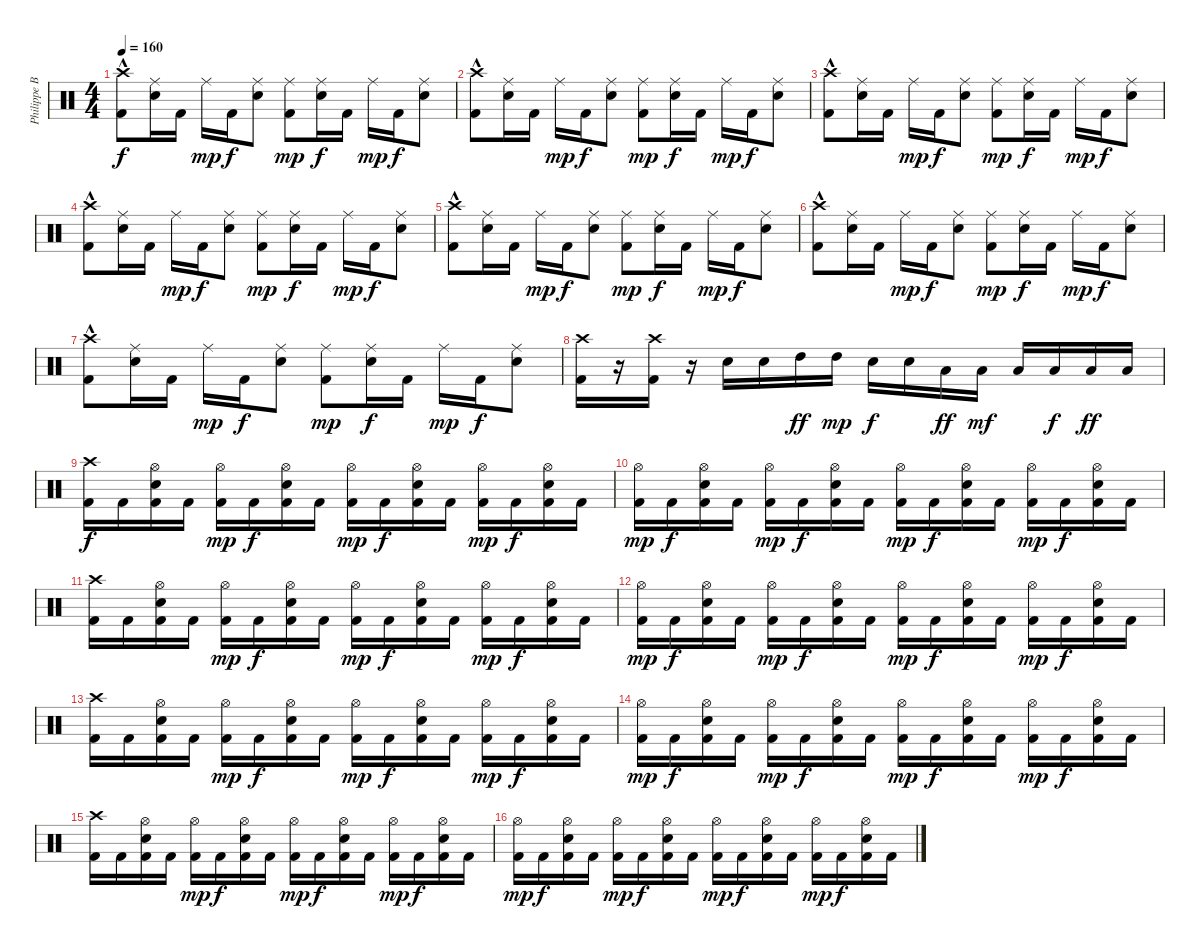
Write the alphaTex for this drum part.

\track ("Philippe Borda" "Philippe B") {instrument percussion}
\staff {score}
\articulation defaults
\ts (4 4)
\tempo 160
\clef neutral
\ks c
("Kick (hit) 2"{hac} "Crash high (hit)").8{dy f} ("Snare (hit) 2" "Ride (middle)").16 "Kick (hit) 2".16 "Ride (middle)".16{dy mp} "Kick (hit) 2".16{dy f} ("Snare (hit) 2" "Ride (middle)").8 ("Kick (hit) 2" "Ride (middle)").8{dy mp} ("Snare (hit) 2" "Ride (middle)").16{dy f} "Kick (hit) 2".16 "Ride (middle)".16{dy mp} "Kick (hit) 2".16{dy f} ("Snare (hit) 2" "Ride (middle)").8 |
("Kick (hit) 2"{hac} "Crash high (hit)").8 ("Snare (hit) 2" "Ride (middle)").16 "Kick (hit) 2".16 "Ride (middle)".16{dy mp} "Kick (hit) 2".16{dy f} ("Snare (hit) 2" "Ride (middle)").8 ("Kick (hit) 2" "Ride (middle)").8{dy mp} ("Snare (hit) 2" "Ride (middle)").16{dy f} "Kick (hit) 2".16 "Ride (middle)".16{dy mp} "Kick (hit) 2".16{dy f} ("Snare (hit) 2" "Ride (middle)").8 |
("Kick (hit) 2"{hac} "Crash high (hit)").8 ("Snare (hit) 2" "Ride (middle)").16 "Kick (hit) 2".16 "Ride (middle)".16{dy mp} "Kick (hit) 2".16{dy f} ("Snare (hit) 2" "Ride (middle)").8 ("Kick (hit) 2" "Ride (middle)").8{dy mp} ("Snare (hit) 2" "Ride (middle)").16{dy f} "Kick (hit) 2".16 "Ride (middle)".16{dy mp} "Kick (hit) 2".16{dy f} ("Snare (hit) 2" "Ride (middle)").8 |
("Kick (hit) 2"{hac} "Crash high (hit)").8 ("Snare (hit) 2" "Ride (middle)").16 "Kick (hit) 2".16 "Ride (middle)".16{dy mp} "Kick (hit) 2".16{dy f} ("Snare (hit) 2" "Ride (middle)").8 ("Kick (hit) 2" "Ride (middle)").8{dy mp} ("Snare (hit) 2" "Ride (middle)").16{dy f} "Kick (hit) 2".16 "Ride (middle)".16{dy mp} "Kick (hit) 2".16{dy f} ("Snare (hit) 2" "Ride (middle)").8 |
("Kick (hit) 2"{hac} "Crash high (hit)").8 ("Snare (hit) 2" "Ride (middle)").16 "Kick (hit) 2".16 "Ride (middle)".16{dy mp} "Kick (hit) 2".16{dy f} ("Snare (hit) 2" "Ride (middle)").8 ("Kick (hit) 2" "Ride (middle)").8{dy mp} ("Snare (hit) 2" "Ride (middle)").16{dy f} "Kick (hit) 2".16 "Ride (middle)".16{dy mp} "Kick (hit) 2".16{dy f} ("Snare (hit) 2" "Ride (middle)").8 |
("Kick (hit) 2"{hac} "Crash high (hit)").8 ("Snare (hit) 2" "Ride (middle)").16 "Kick (hit) 2".16 "Ride (middle)".16{dy mp} "Kick (hit) 2".16{dy f} ("Snare (hit) 2" "Ride (middle)").8 ("Kick (hit) 2" "Ride (middle)").8{dy mp} ("Snare (hit) 2" "Ride (middle)").16{dy f} "Kick (hit) 2".16 "Ride (middle)".16{dy mp} "Kick (hit) 2".16{dy f} ("Snare (hit) 2" "Ride (middle)").8 |
("Kick (hit) 2"{hac} "Crash high (hit)").8 ("Snare (hit) 2" "Ride (middle)").16 "Kick (hit) 2".16 "Ride (middle)".16{dy mp} "Kick (hit) 2".16{dy f} ("Snare (hit) 2" "Ride (middle)").8 ("Kick (hit) 2" "Ride (middle)").8{dy mp} ("Snare (hit) 2" "Ride (middle)").16{dy f} "Kick (hit) 2".16 "Ride (middle)".16{dy mp} "Kick (hit) 2".16{dy f} ("Snare (hit) 2" "Ride (middle)").8 |
("Kick (hit) 2" "Crash high (hit)").16 r.16 ("Kick (hit) 2" "Crash high (hit)").16 r.16 "Snare (hit) 2".16 "Snare (hit) 2".16 "High Tom (hit)".16{dy ff} "High Tom (hit)".16{dy mp} "Snare (hit) 2".16{dy f} "Snare (hit) 2".16 "Low Tom (hit)".16{dy ff} "Low Tom (hit)".16{dy mf} "Low Floor Tom (hit)".16 "Low Floor Tom (hit)".16{dy f} "Low Floor Tom (hit)".16{dy ff} "Low Floor Tom (hit)".16 |
("Kick (hit) 2" "Crash high (hit)").16{dy f} "Kick (hit) 2".16 ("Kick (hit) 2" "Snare (hit) 2" "Hi-Hat (open)").16 "Kick (hit) 2".16 ("Kick (hit) 2" "Hi-Hat (open)").16{dy mp} "Kick (hit) 2".16{dy f} ("Kick (hit) 2" "Snare (hit) 2" "Hi-Hat (open)").16 "Kick (hit) 2".16 ("Kick (hit) 2" "Hi-Hat (open)").16{dy mp} "Kick (hit) 2".16{dy f} ("Kick (hit) 2" "Snare (hit) 2" "Hi-Hat (open)").16 "Kick (hit) 2".16 ("Kick (hit) 2" "Hi-Hat (open)").16{dy mp} "Kick (hit) 2".16{dy f} ("Kick (hit) 2" "Snare (hit) 2" "Hi-Hat (open)").16 "Kick (hit) 2".16 |
("Kick (hit) 2" "Hi-Hat (open)").16{dy mp} "Kick (hit) 2".16{dy f} ("Kick (hit) 2" "Snare (hit) 2" "Hi-Hat (open)").16 "Kick (hit) 2".16 ("Kick (hit) 2" "Hi-Hat (open)").16{dy mp} "Kick (hit) 2".16{dy f} ("Kick (hit) 2" "Snare (hit) 2" "Hi-Hat (open)").16 "Kick (hit) 2".16 ("Kick (hit) 2" "Hi-Hat (open)").16{dy mp} "Kick (hit) 2".16{dy f} ("Kick (hit) 2" "Snare (hit) 2" "Hi-Hat (open)").16 "Kick (hit) 2".16 ("Kick (hit) 2" "Hi-Hat (open)").16{dy mp} "Kick (hit) 2".16{dy f} ("Kick (hit) 2" "Snare (hit) 2" "Hi-Hat (open)").16 "Kick (hit) 2".16 |
("Kick (hit) 2" "Crash high (hit)").16 "Kick (hit) 2".16 ("Kick (hit) 2" "Snare (hit) 2" "Hi-Hat (open)").16 "Kick (hit) 2".16 ("Kick (hit) 2" "Hi-Hat (open)").16{dy mp} "Kick (hit) 2".16{dy f} ("Kick (hit) 2" "Snare (hit) 2" "Hi-Hat (open)").16 "Kick (hit) 2".16 ("Kick (hit) 2" "Hi-Hat (open)").16{dy mp} "Kick (hit) 2".16{dy f} ("Kick (hit) 2" "Snare (hit) 2" "Hi-Hat (open)").16 "Kick (hit) 2".16 ("Kick (hit) 2" "Hi-Hat (open)").16{dy mp} "Kick (hit) 2".16{dy f} ("Kick (hit) 2" "Snare (hit) 2" "Hi-Hat (open)").16 "Kick (hit) 2".16 |
("Kick (hit) 2" "Hi-Hat (open)").16{dy mp} "Kick (hit) 2".16{dy f} ("Kick (hit) 2" "Snare (hit) 2" "Hi-Hat (open)").16 "Kick (hit) 2".16 ("Kick (hit) 2" "Hi-Hat (open)").16{dy mp} "Kick (hit) 2".16{dy f} ("Kick (hit) 2" "Snare (hit) 2" "Hi-Hat (open)").16 "Kick (hit) 2".16 ("Kick (hit) 2" "Hi-Hat (open)").16{dy mp} "Kick (hit) 2".16{dy f} ("Kick (hit) 2" "Snare (hit) 2" "Hi-Hat (open)").16 "Kick (hit) 2".16 ("Kick (hit) 2" "Hi-Hat (open)").16{dy mp} "Kick (hit) 2".16{dy f} ("Kick (hit) 2" "Snare (hit) 2" "Hi-Hat (open)").16 "Kick (hit) 2".16 |
("Kick (hit) 2" "Crash high (hit)").16 "Kick (hit) 2".16 ("Kick (hit) 2" "Snare (hit) 2" "Hi-Hat (open)").16 "Kick (hit) 2".16 ("Kick (hit) 2" "Hi-Hat (open)").16{dy mp} "Kick (hit) 2".16{dy f} ("Kick (hit) 2" "Snare (hit) 2" "Hi-Hat (open)").16 "Kick (hit) 2".16 ("Kick (hit) 2" "Hi-Hat (open)").16{dy mp} "Kick (hit) 2".16{dy f} ("Kick (hit) 2" "Snare (hit) 2" "Hi-Hat (open)").16 "Kick (hit) 2".16 ("Kick (hit) 2" "Hi-Hat (open)").16{dy mp} "Kick (hit) 2".16{dy f} ("Kick (hit) 2" "Snare (hit) 2" "Hi-Hat (open)").16 "Kick (hit) 2".16 |
("Kick (hit) 2" "Hi-Hat (open)").16{dy mp} "Kick (hit) 2".16{dy f} ("Kick (hit) 2" "Snare (hit) 2" "Hi-Hat (open)").16 "Kick (hit) 2".16 ("Kick (hit) 2" "Hi-Hat (open)").16{dy mp} "Kick (hit) 2".16{dy f} ("Kick (hit) 2" "Snare (hit) 2" "Hi-Hat (open)").16 "Kick (hit) 2".16 ("Kick (hit) 2" "Hi-Hat (open)").16{dy mp} "Kick (hit) 2".16{dy f} ("Kick (hit) 2" "Snare (hit) 2" "Hi-Hat (open)").16 "Kick (hit) 2".16 ("Kick (hit) 2" "Hi-Hat (open)").16{dy mp} "Kick (hit) 2".16{dy f} ("Kick (hit) 2" "Snare (hit) 2" "Hi-Hat (open)").16 "Kick (hit) 2".16 |
("Kick (hit) 2" "Crash high (hit)").16 "Kick (hit) 2".16 ("Kick (hit) 2" "Snare (hit) 2" "Hi-Hat (open)").16 "Kick (hit) 2".16 ("Kick (hit) 2" "Hi-Hat (open)").16{dy mp} "Kick (hit) 2".16{dy f} ("Kick (hit) 2" "Snare (hit) 2" "Hi-Hat (open)").16 "Kick (hit) 2".16 ("Kick (hit) 2" "Hi-Hat (open)").16{dy mp} "Kick (hit) 2".16{dy f} ("Kick (hit) 2" "Snare (hit) 2" "Hi-Hat (open)").16 "Kick (hit) 2".16 ("Kick (hit) 2" "Hi-Hat (open)").16{dy mp} "Kick (hit) 2".16{dy f} ("Kick (hit) 2" "Snare (hit) 2" "Hi-Hat (open)").16 "Kick (hit) 2".16 |
("Kick (hit) 2" "Hi-Hat (open)").16{dy mp} "Kick (hit) 2".16{dy f} ("Kick (hit) 2" "Snare (hit) 2" "Hi-Hat (open)").16 "Kick (hit) 2".16 ("Kick (hit) 2" "Hi-Hat (open)").16{dy mp} "Kick (hit) 2".16{dy f} ("Kick (hit) 2" "Snare (hit) 2" "Hi-Hat (open)").16 "Kick (hit) 2".16 ("Kick (hit) 2" "Hi-Hat (open)").16{dy mp} "Kick (hit) 2".16{dy f} ("Kick (hit) 2" "Snare (hit) 2" "Hi-Hat (open)").16 "Kick (hit) 2".16 ("Kick (hit) 2" "Hi-Hat (open)").16{dy mp} "Kick (hit) 2".16{dy f} ("Kick (hit) 2" "Snare (hit) 2" "Hi-Hat (open)").16 "Kick (hit) 2".16
